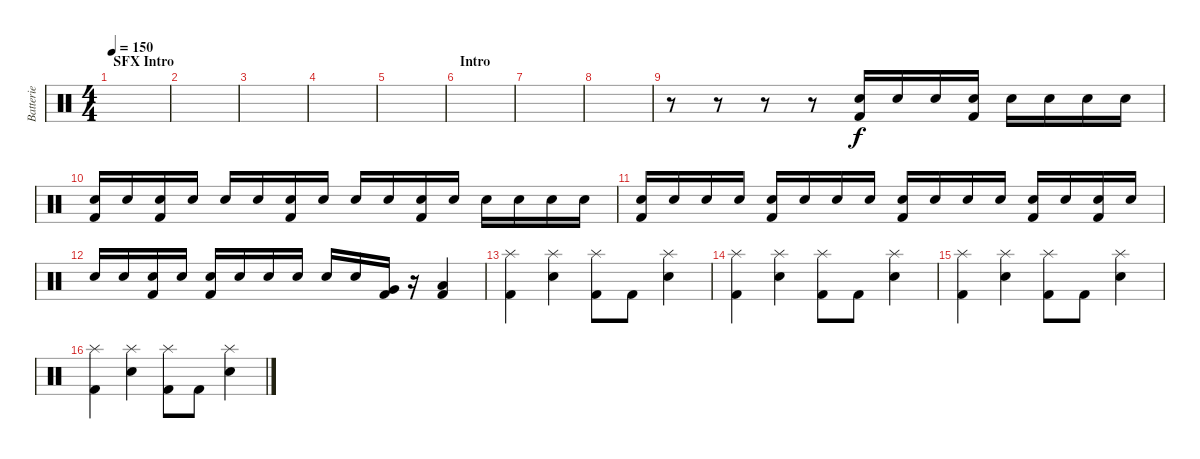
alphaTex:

\track ("Batterie" "Batterie") {instrument percussion}
\staff {score}
\articulation defaults
\ts (4 4)
\section ("" "SFX Intro")
\tempo 150
\clef neutral
\ks c
|
|
|
|
|
\section ("" "Intro")
|
|
|
r.8 r.8 r.8 r.8 ("Electric Snare (hit)" "Kick (hit) 2").16 "Electric Snare (hit)".16 "Electric Snare (hit)".16 ("Electric Snare (hit)" "Kick (hit) 2").16 "Electric Snare (hit)".16 "Electric Snare (hit)".16 "Electric Snare (hit)".16 "Electric Snare (hit)".16 |
("Electric Snare (hit)" "Kick (hit) 2").16 "Electric Snare (hit)".16 ("Electric Snare (hit)" "Kick (hit) 2").16 "Electric Snare (hit)".16 "Electric Snare (hit)".16 "Electric Snare (hit)".16 ("Electric Snare (hit)" "Kick (hit) 2").16 "Electric Snare (hit)".16 "Electric Snare (hit)".16 "Electric Snare (hit)".16 ("Electric Snare (hit)" "Kick (hit) 2").16 "Electric Snare (hit)".16 "Electric Snare (hit)".16 "Electric Snare (hit)".16 "Electric Snare (hit)".16 "Electric Snare (hit)".16 |
("Electric Snare (hit)" "Kick (hit) 2").16 "Electric Snare (hit)".16 "Electric Snare (hit)".16 "Electric Snare (hit)".16 ("Electric Snare (hit)" "Kick (hit) 2").16 "Electric Snare (hit)".16 "Electric Snare (hit)".16 "Electric Snare (hit)".16 ("Electric Snare (hit)" "Kick (hit) 2").16 "Electric Snare (hit)".16 "Electric Snare (hit)".16 "Electric Snare (hit)".16 ("Electric Snare (hit)" "Kick (hit) 2").16 "Electric Snare (hit)".16 ("Electric Snare (hit)" "Kick (hit) 2").16 "Electric Snare (hit)".16 |
"Electric Snare (hit)".16 "Electric Snare (hit)".16 ("Electric Snare (hit)" "Kick (hit) 2").16 "Electric Snare (hit)".16 ("Electric Snare (hit)" "Kick (hit) 2").16 "Electric Snare (hit)".16 "Electric Snare (hit)".16 "Electric Snare (hit)".16 "Electric Snare (hit)".16 "Electric Snare (hit)".16 ("Very Low Tom (hit)" "Kick (hit) 2").16 r.16 ("Low Floor Tom (hit)" "Kick (hit) 2").4 |
("Splash (hit)" "Kick (hit) 2").4 ("Splash (hit)" "Electric Snare (hit)").4 ("Splash (hit)" "Kick (hit) 2").8 "Kick (hit) 2".8 ("Splash (hit)" "Electric Snare (hit)").4 |
("Splash (hit)" "Kick (hit) 2").4 ("Splash (hit)" "Electric Snare (hit)").4 ("Splash (hit)" "Kick (hit) 2").8 "Kick (hit) 2".8 ("Splash (hit)" "Electric Snare (hit)").4 |
("Splash (hit)" "Kick (hit) 2").4 ("Splash (hit)" "Electric Snare (hit)").4 ("Splash (hit)" "Kick (hit) 2").8 "Kick (hit) 2".8 ("Splash (hit)" "Electric Snare (hit)").4 |
("Splash (hit)" "Kick (hit) 2").4 ("Splash (hit)" "Electric Snare (hit)").4 ("Splash (hit)" "Kick (hit) 2").8 "Kick (hit) 2".8 ("Splash (hit)" "Electric Snare (hit)").4
